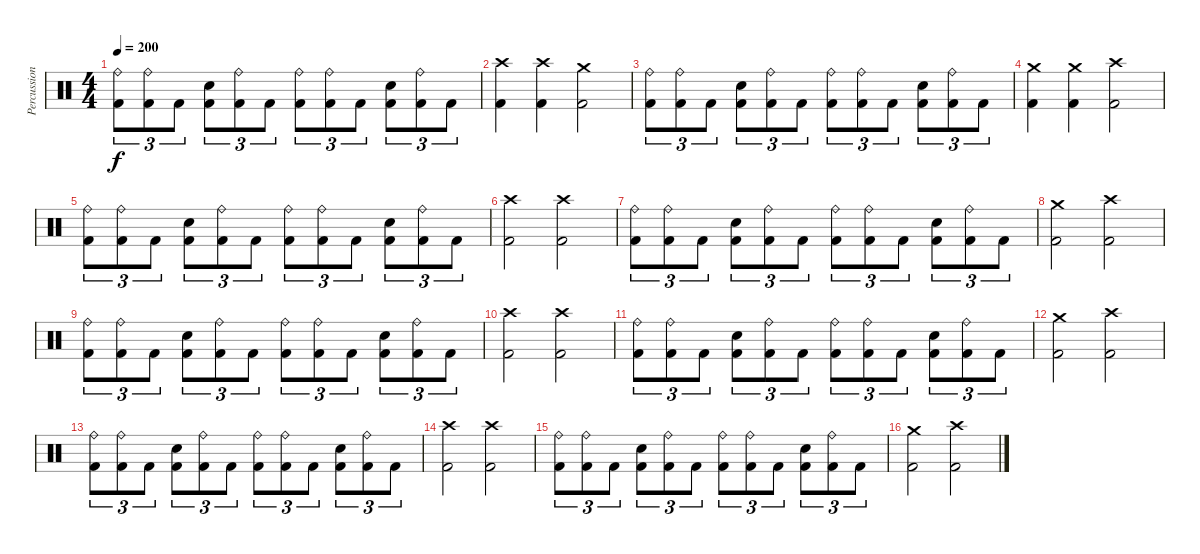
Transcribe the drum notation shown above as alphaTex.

\track ("Percussion" "Percussion") {instrument percussion}
\staff {score}
\articulation defaults
\ts (4 4)
\tempo 200
\clef neutral
\ks c
("Ride (bell)" "Kick (hit) 2").8{tu (3 2) dy f} ("Ride (bell)" "Kick (hit) 2").8{tu (3 2)} "Kick (hit) 2".8{tu (3 2)} ("Electric Snare (hit)" "Kick (hit) 2").8{tu (3 2)} ("Ride (bell)" "Kick (hit) 2").8{tu (3 2)} "Kick (hit) 2".8{tu (3 2)} ("Ride (bell)" "Kick (hit) 2").8{tu (3 2)} ("Ride (bell)" "Kick (hit) 2").8{tu (3 2)} "Kick (hit) 2".8{tu (3 2)} ("Electric Snare (hit)" "Kick (hit) 2").8{tu (3 2)} ("Ride (bell)" "Kick (hit) 2").8{tu (3 2)} "Kick (hit) 2".8{tu (3 2)} |
("Crash high (hit)" "Kick (hit) 2").4 ("Crash high (hit)" "Kick (hit) 2").4 ("Crash medium (hit)" "Kick (hit) 2").2 |
("Ride (bell)" "Kick (hit) 2").8{tu (3 2)} ("Ride (bell)" "Kick (hit) 2").8{tu (3 2)} "Kick (hit) 2".8{tu (3 2)} ("Electric Snare (hit)" "Kick (hit) 2").8{tu (3 2)} ("Ride (bell)" "Kick (hit) 2").8{tu (3 2)} "Kick (hit) 2".8{tu (3 2)} ("Ride (bell)" "Kick (hit) 2").8{tu (3 2)} ("Ride (bell)" "Kick (hit) 2").8{tu (3 2)} "Kick (hit) 2".8{tu (3 2)} ("Electric Snare (hit)" "Kick (hit) 2").8{tu (3 2)} ("Ride (bell)" "Kick (hit) 2").8{tu (3 2)} "Kick (hit) 2".8{tu (3 2)} |
("Crash medium (hit)" "Kick (hit) 2").4 ("Crash medium (hit)" "Kick (hit) 2").4 ("Crash high (hit)" "Kick (hit) 2").2 |
("Ride (bell)" "Kick (hit) 2").8{tu (3 2)} ("Ride (bell)" "Kick (hit) 2").8{tu (3 2)} "Kick (hit) 2".8{tu (3 2)} ("Electric Snare (hit)" "Kick (hit) 2").8{tu (3 2)} ("Ride (bell)" "Kick (hit) 2").8{tu (3 2)} "Kick (hit) 2".8{tu (3 2)} ("Ride (bell)" "Kick (hit) 2").8{tu (3 2)} ("Ride (bell)" "Kick (hit) 2").8{tu (3 2)} "Kick (hit) 2".8{tu (3 2)} ("Electric Snare (hit)" "Kick (hit) 2").8{tu (3 2)} ("Ride (bell)" "Kick (hit) 2").8{tu (3 2)} "Kick (hit) 2".8{tu (3 2)} |
("Crash high (hit)" "Kick (hit) 2").2 ("Crash high (hit)" "Kick (hit) 2").2 |
("Ride (bell)" "Kick (hit) 2").8{tu (3 2)} ("Ride (bell)" "Kick (hit) 2").8{tu (3 2)} "Kick (hit) 2".8{tu (3 2)} ("Electric Snare (hit)" "Kick (hit) 2").8{tu (3 2)} ("Ride (bell)" "Kick (hit) 2").8{tu (3 2)} "Kick (hit) 2".8{tu (3 2)} ("Ride (bell)" "Kick (hit) 2").8{tu (3 2)} ("Ride (bell)" "Kick (hit) 2").8{tu (3 2)} "Kick (hit) 2".8{tu (3 2)} ("Electric Snare (hit)" "Kick (hit) 2").8{tu (3 2)} ("Ride (bell)" "Kick (hit) 2").8{tu (3 2)} "Kick (hit) 2".8{tu (3 2)} |
("Crash medium (hit)" "Kick (hit) 2").2 ("Crash high (hit)" "Kick (hit) 2").2 |
("Ride (bell)" "Kick (hit) 2").8{tu (3 2)} ("Ride (bell)" "Kick (hit) 2").8{tu (3 2)} "Kick (hit) 2".8{tu (3 2)} ("Electric Snare (hit)" "Kick (hit) 2").8{tu (3 2)} ("Ride (bell)" "Kick (hit) 2").8{tu (3 2)} "Kick (hit) 2".8{tu (3 2)} ("Ride (bell)" "Kick (hit) 2").8{tu (3 2)} ("Ride (bell)" "Kick (hit) 2").8{tu (3 2)} "Kick (hit) 2".8{tu (3 2)} ("Electric Snare (hit)" "Kick (hit) 2").8{tu (3 2)} ("Ride (bell)" "Kick (hit) 2").8{tu (3 2)} "Kick (hit) 2".8{tu (3 2)} |
("Crash high (hit)" "Kick (hit) 2").2 ("Crash high (hit)" "Kick (hit) 2").2 |
("Ride (bell)" "Kick (hit) 2").8{tu (3 2)} ("Ride (bell)" "Kick (hit) 2").8{tu (3 2)} "Kick (hit) 2".8{tu (3 2)} ("Electric Snare (hit)" "Kick (hit) 2").8{tu (3 2)} ("Ride (bell)" "Kick (hit) 2").8{tu (3 2)} "Kick (hit) 2".8{tu (3 2)} ("Ride (bell)" "Kick (hit) 2").8{tu (3 2)} ("Ride (bell)" "Kick (hit) 2").8{tu (3 2)} "Kick (hit) 2".8{tu (3 2)} ("Electric Snare (hit)" "Kick (hit) 2").8{tu (3 2)} ("Ride (bell)" "Kick (hit) 2").8{tu (3 2)} "Kick (hit) 2".8{tu (3 2)} |
("Crash medium (hit)" "Kick (hit) 2").2 ("Crash high (hit)" "Kick (hit) 2").2 |
("Ride (bell)" "Kick (hit) 2").8{tu (3 2)} ("Ride (bell)" "Kick (hit) 2").8{tu (3 2)} "Kick (hit) 2".8{tu (3 2)} ("Electric Snare (hit)" "Kick (hit) 2").8{tu (3 2)} ("Ride (bell)" "Kick (hit) 2").8{tu (3 2)} "Kick (hit) 2".8{tu (3 2)} ("Ride (bell)" "Kick (hit) 2").8{tu (3 2)} ("Ride (bell)" "Kick (hit) 2").8{tu (3 2)} "Kick (hit) 2".8{tu (3 2)} ("Electric Snare (hit)" "Kick (hit) 2").8{tu (3 2)} ("Ride (bell)" "Kick (hit) 2").8{tu (3 2)} "Kick (hit) 2".8{tu (3 2)} |
("Crash high (hit)" "Kick (hit) 2").2 ("Crash high (hit)" "Kick (hit) 2").2 |
("Ride (bell)" "Kick (hit) 2").8{tu (3 2)} ("Ride (bell)" "Kick (hit) 2").8{tu (3 2)} "Kick (hit) 2".8{tu (3 2)} ("Electric Snare (hit)" "Kick (hit) 2").8{tu (3 2)} ("Ride (bell)" "Kick (hit) 2").8{tu (3 2)} "Kick (hit) 2".8{tu (3 2)} ("Ride (bell)" "Kick (hit) 2").8{tu (3 2)} ("Ride (bell)" "Kick (hit) 2").8{tu (3 2)} "Kick (hit) 2".8{tu (3 2)} ("Electric Snare (hit)" "Kick (hit) 2").8{tu (3 2)} ("Ride (bell)" "Kick (hit) 2").8{tu (3 2)} "Kick (hit) 2".8{tu (3 2)} |
("Crash medium (hit)" "Kick (hit) 2").2 ("Crash high (hit)" "Kick (hit) 2").2
